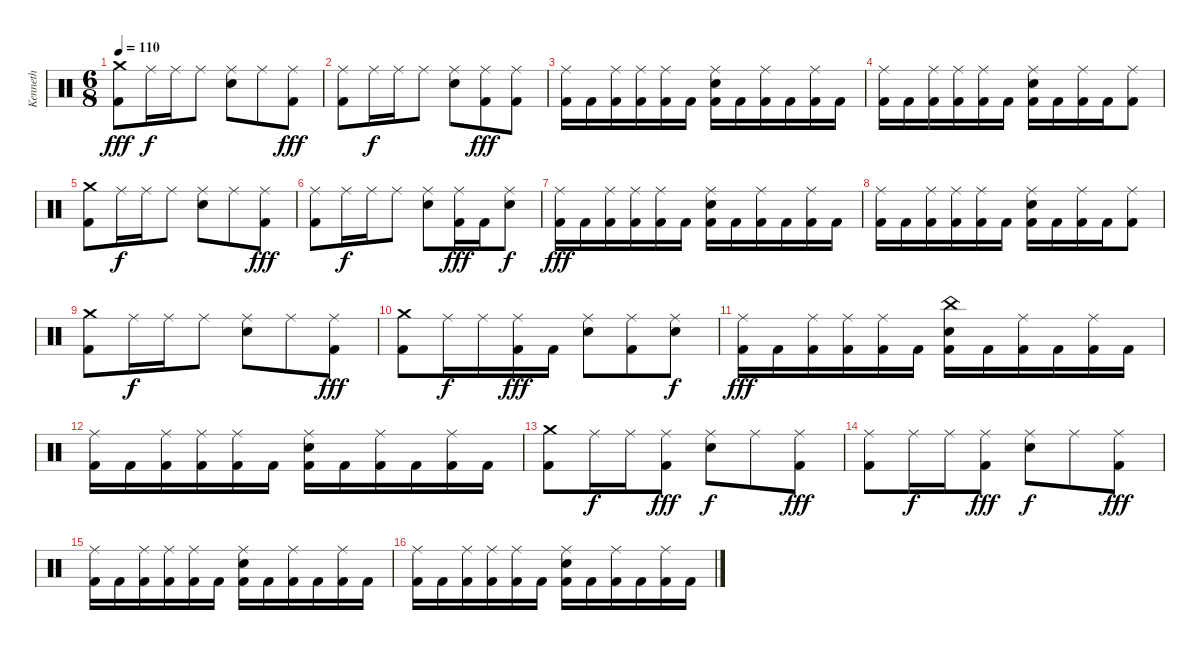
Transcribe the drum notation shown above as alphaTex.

\track ("Kenneth" "Kenneth") {instrument percussion}
\staff {score}
\articulation defaults
\ts (6 8)
\tempo 110
\clef neutral
\ks c
("Crash medium (hit)" "Kick (hit) 2").8{dy fff} "Ride (middle)".16{dy f} "Ride (middle)".16 "Ride (middle)".8 ("Ride (middle)" "Snare (hit) 2").8 "Ride (middle)".8 ("Ride (middle)" "Kick (hit) 2").8{dy fff} |
("Ride (middle)" "Kick (hit) 2").8 "Ride (middle)".16{dy f} "Ride (middle)".16 "Ride (middle)".8 ("Ride (middle)" "Snare (hit) 2").8 ("Ride (middle)" "Kick (hit) 2").8{dy fff} ("Ride (middle)" "Kick (hit) 2").8 |
("Ride (middle)" "Kick (hit) 2").16 "Kick (hit) 2".16 ("Ride (middle)" "Kick (hit) 2").16 ("Ride (middle)" "Kick (hit) 2").16 ("Ride (middle)" "Kick (hit) 2").16 "Kick (hit) 2".16 ("Ride (middle)" "Snare (hit) 2" "Kick (hit) 2").16 "Kick (hit) 2".16 ("Ride (middle)" "Kick (hit) 2").16 "Kick (hit) 2".16 ("Ride (middle)" "Kick (hit) 2").16 "Kick (hit) 2".16 |
("Ride (middle)" "Kick (hit) 2").16 "Kick (hit) 2".16 ("Ride (middle)" "Kick (hit) 2").16 ("Ride (middle)" "Kick (hit) 2").16 ("Ride (middle)" "Kick (hit) 2").16 "Kick (hit) 2".16 ("Ride (middle)" "Snare (hit) 2" "Kick (hit) 2").16 "Kick (hit) 2".16 ("Ride (middle)" "Kick (hit) 2").16 "Kick (hit) 2".16 ("Ride (middle)" "Kick (hit) 2").8 |
("Crash medium (hit)" "Kick (hit) 2").8 "Ride (middle)".16{dy f} "Ride (middle)".16 "Ride (middle)".8 ("Ride (middle)" "Snare (hit) 2").8 "Ride (middle)".8 ("Ride (middle)" "Kick (hit) 2").8{dy fff} |
("Ride (middle)" "Kick (hit) 2").8 "Ride (middle)".16{dy f} "Ride (middle)".16 "Ride (middle)".8 ("Ride (middle)" "Snare (hit) 2").8 ("Ride (middle)" "Kick (hit) 2").16{dy fff} "Kick (hit) 2".16 ("Ride (middle)" "Snare (hit) 2").8{dy f} |
("Ride (middle)" "Kick (hit) 2").16{dy fff} "Kick (hit) 2".16 ("Ride (middle)" "Kick (hit) 2").16 ("Ride (middle)" "Kick (hit) 2").16 ("Ride (middle)" "Kick (hit) 2").16 "Kick (hit) 2".16 ("Ride (middle)" "Snare (hit) 2" "Kick (hit) 2").16 "Kick (hit) 2".16 ("Ride (middle)" "Kick (hit) 2").16 "Kick (hit) 2".16 ("Ride (middle)" "Kick (hit) 2").16 "Kick (hit) 2".16 |
("Ride (middle)" "Kick (hit) 2").16 "Kick (hit) 2".16 ("Ride (middle)" "Kick (hit) 2").16 ("Ride (middle)" "Kick (hit) 2").16 ("Ride (middle)" "Kick (hit) 2").16 "Kick (hit) 2".16 ("Ride (middle)" "Snare (hit) 2" "Kick (hit) 2").16 "Kick (hit) 2".16 ("Ride (middle)" "Kick (hit) 2").16 "Kick (hit) 2".16 ("Ride (middle)" "Kick (hit) 2").8 |
("Crash medium (hit)" "Kick (hit) 2").8 "Ride (middle)".16{dy f} "Ride (middle)".16 "Ride (middle)".8 ("Ride (middle)" "Snare (hit) 2").8 "Ride (middle)".8 ("Ride (middle)" "Kick (hit) 2").8{dy fff} |
("Crash medium (hit)" "Kick (hit) 2").8 "Ride (middle)".16{dy f} "Ride (middle)".16 ("Ride (middle)" "Kick (hit) 2").16{dy fff} "Kick (hit) 2".16 ("Ride (middle)" "Snare (hit) 2").8 ("Ride (middle)" "Kick (hit) 2").8 ("Ride (middle)" "Snare (hit) 2").8{dy f} |
("Ride (middle)" "Kick (hit) 2").16{dy fff} "Kick (hit) 2".16 ("Ride (middle)" "Kick (hit) 2").16 ("Ride (middle)" "Kick (hit) 2").16 ("Ride (middle)" "Kick (hit) 2").16 "Kick (hit) 2".16 ("China (hit)" "Snare (hit) 2" "Kick (hit) 2").16 "Kick (hit) 2".16 ("Ride (middle)" "Kick (hit) 2").16 "Kick (hit) 2".16 ("Ride (middle)" "Kick (hit) 2").16 "Kick (hit) 2".16 |
("Ride (middle)" "Kick (hit) 2").16 "Kick (hit) 2".16 ("Ride (middle)" "Kick (hit) 2").16 ("Ride (middle)" "Kick (hit) 2").16 ("Ride (middle)" "Kick (hit) 2").16 "Kick (hit) 2".16 ("Ride (middle)" "Snare (hit) 2" "Kick (hit) 2").16 "Kick (hit) 2".16 ("Ride (middle)" "Kick (hit) 2").16 "Kick (hit) 2".16 ("Ride (middle)" "Kick (hit) 2").16 "Kick (hit) 2".16 |
("Crash medium (hit)" "Kick (hit) 2").8 "Ride (middle)".16{dy f} "Ride (middle)".16 ("Ride (middle)" "Kick (hit) 2").8{dy fff} ("Ride (middle)" "Snare (hit) 2").8{dy f} "Ride (middle)".8 ("Ride (middle)" "Kick (hit) 2").8{dy fff} |
("Ride (middle)" "Kick (hit) 2").8 "Ride (middle)".16{dy f} "Ride (middle)".16 ("Ride (middle)" "Kick (hit) 2").8{dy fff} ("Ride (middle)" "Snare (hit) 2").8{dy f} "Ride (middle)".8 ("Ride (middle)" "Kick (hit) 2").8{dy fff} |
("Ride (middle)" "Kick (hit) 2").16 "Kick (hit) 2".16 ("Ride (middle)" "Kick (hit) 2").16 ("Ride (middle)" "Kick (hit) 2").16 ("Ride (middle)" "Kick (hit) 2").16 "Kick (hit) 2".16 ("Ride (middle)" "Snare (hit) 2" "Kick (hit) 2").16 "Kick (hit) 2".16 ("Ride (middle)" "Kick (hit) 2").16 "Kick (hit) 2".16 ("Ride (middle)" "Kick (hit) 2").16 "Kick (hit) 2".16 |
("Ride (middle)" "Kick (hit) 2").16 "Kick (hit) 2".16 ("Ride (middle)" "Kick (hit) 2").16 ("Ride (middle)" "Kick (hit) 2").16 ("Ride (middle)" "Kick (hit) 2").16 "Kick (hit) 2".16 ("Ride (middle)" "Snare (hit) 2" "Kick (hit) 2").16 "Kick (hit) 2".16 ("Ride (middle)" "Kick (hit) 2").16 "Kick (hit) 2".16 ("Ride (middle)" "Kick (hit) 2").16 "Kick (hit) 2".16
